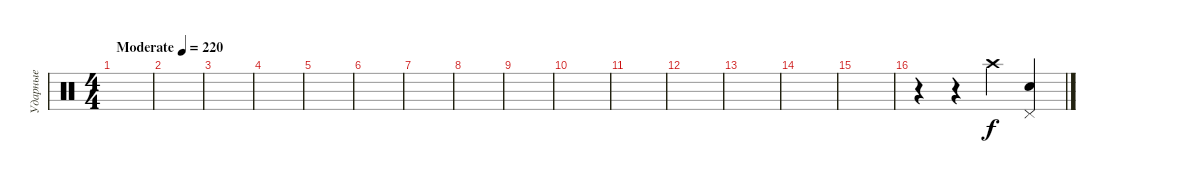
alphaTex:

\track ("Ударные" "Ударные") {instrument percussion}
\staff {score}
\articulation defaults
\ts (4 4)
\tempo (220 "Moderate")
\clef neutral
\ks c
|
|
|
|
|
|
|
|
|
|
|
|
|
|
|
r.4 r.4 "Crash high (hit)".4 ("Pedal Hi-Hat (hit)" "Electric Snare (hit)").4
